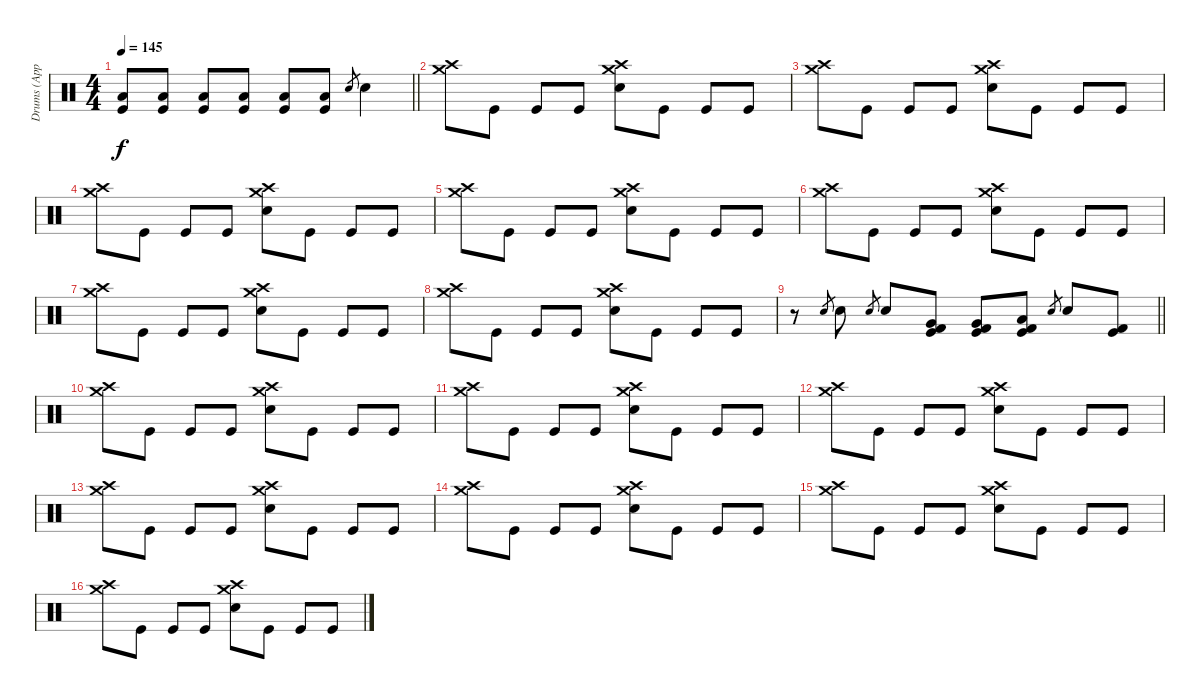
\track ("Drums (Approx.)" "Drums (App") {instrument percussion}
\staff {score}
\articulation defaults
\ts (4 4)
\tempo 145
\clef neutral
\barLineRight lightlight
\ks c
("Low Floor Tom (hit)" "Kick (hit)").8{dy f} ("Low Floor Tom (hit)" "Kick (hit)").8 ("Low Floor Tom (hit)" "Kick (hit)").8 ("Low Floor Tom (hit)" "Kick (hit)").8 ("Low Floor Tom (hit)" "Kick (hit)").8 ("Low Floor Tom (hit)" "Kick (hit)").8 "Electric Snare (hit)".8{gr} "Electric Snare (hit)".4 |
\section ("" "")
("Crash medium (hit)" "Crash high (hit)").8 "Kick (hit)".8 "Kick (hit)".8 "Kick (hit)".8 ("Crash medium (hit)" "Crash high (hit)" "Electric Snare (hit)").8 "Kick (hit)".8 "Kick (hit)".8 "Kick (hit)".8 |
("Crash medium (hit)" "Crash high (hit)").8 "Kick (hit)".8 "Kick (hit)".8 "Kick (hit)".8 ("Crash medium (hit)" "Crash high (hit)" "Electric Snare (hit)").8 "Kick (hit)".8 "Kick (hit)".8 "Kick (hit)".8 |
("Crash medium (hit)" "Crash high (hit)").8 "Kick (hit)".8 "Kick (hit)".8 "Kick (hit)".8 ("Crash medium (hit)" "Crash high (hit)" "Electric Snare (hit)").8 "Kick (hit)".8 "Kick (hit)".8 "Kick (hit)".8 |
("Crash medium (hit)" "Crash high (hit)").8 "Kick (hit)".8 "Kick (hit)".8 "Kick (hit)".8 ("Crash medium (hit)" "Crash high (hit)" "Electric Snare (hit)").8 "Kick (hit)".8 "Kick (hit)".8 "Kick (hit)".8 |
("Crash medium (hit)" "Crash high (hit)").8 "Kick (hit)".8 "Kick (hit)".8 "Kick (hit)".8 ("Crash medium (hit)" "Crash high (hit)" "Electric Snare (hit)").8 "Kick (hit)".8 "Kick (hit)".8 "Kick (hit)".8 |
("Crash medium (hit)" "Crash high (hit)").8 "Kick (hit)".8 "Kick (hit)".8 "Kick (hit)".8 ("Crash medium (hit)" "Crash high (hit)" "Electric Snare (hit)").8 "Kick (hit)".8 "Kick (hit)".8 "Kick (hit)".8 |
("Crash medium (hit)" "Crash high (hit)").8 "Kick (hit)".8 "Kick (hit)".8 "Kick (hit)".8 ("Crash medium (hit)" "Crash high (hit)" "Electric Snare (hit)").8 "Kick (hit)".8 "Kick (hit)".8 "Kick (hit)".8 |
\barLineRight lightlight
r.8 "Electric Snare (hit)".8{gr} "Electric Snare (hit)".8 "Electric Snare (hit)".8{gr} "Electric Snare (hit)".8 ("Very Low Tom (hit)" "Kick (hit) 2" "Kick (hit)").8 ("Very Low Tom (hit)" "Kick (hit) 2" "Kick (hit)").8 ("Low Floor Tom (hit)" "Kick (hit) 2" "Kick (hit)").8 "Electric Snare (hit)".8{gr} "Electric Snare (hit)".8 ("Kick (hit) 2" "Kick (hit)").8 |
("Crash medium (hit)" "Crash high (hit)").8 "Kick (hit)".8 "Kick (hit)".8 "Kick (hit)".8 ("Crash medium (hit)" "Crash high (hit)" "Electric Snare (hit)").8 "Kick (hit)".8 "Kick (hit)".8 "Kick (hit)".8 |
("Crash medium (hit)" "Crash high (hit)").8 "Kick (hit)".8 "Kick (hit)".8 "Kick (hit)".8 ("Crash medium (hit)" "Crash high (hit)" "Electric Snare (hit)").8 "Kick (hit)".8 "Kick (hit)".8 "Kick (hit)".8 |
("Crash medium (hit)" "Crash high (hit)").8 "Kick (hit)".8 "Kick (hit)".8 "Kick (hit)".8 ("Crash medium (hit)" "Crash high (hit)" "Electric Snare (hit)").8 "Kick (hit)".8 "Kick (hit)".8 "Kick (hit)".8 |
("Crash medium (hit)" "Crash high (hit)").8 "Kick (hit)".8 "Kick (hit)".8 "Kick (hit)".8 ("Crash medium (hit)" "Crash high (hit)" "Electric Snare (hit)").8 "Kick (hit)".8 "Kick (hit)".8 "Kick (hit)".8 |
("Crash medium (hit)" "Crash high (hit)").8 "Kick (hit)".8 "Kick (hit)".8 "Kick (hit)".8 ("Crash medium (hit)" "Crash high (hit)" "Electric Snare (hit)").8 "Kick (hit)".8 "Kick (hit)".8 "Kick (hit)".8 |
("Crash medium (hit)" "Crash high (hit)").8 "Kick (hit)".8 "Kick (hit)".8 "Kick (hit)".8 ("Crash medium (hit)" "Crash high (hit)" "Electric Snare (hit)").8 "Kick (hit)".8 "Kick (hit)".8 "Kick (hit)".8 |
("Crash medium (hit)" "Crash high (hit)").8 "Kick (hit)".8 "Kick (hit)".8 "Kick (hit)".8 ("Crash medium (hit)" "Crash high (hit)" "Electric Snare (hit)").8 "Kick (hit)".8 "Kick (hit)".8 "Kick (hit)".8
